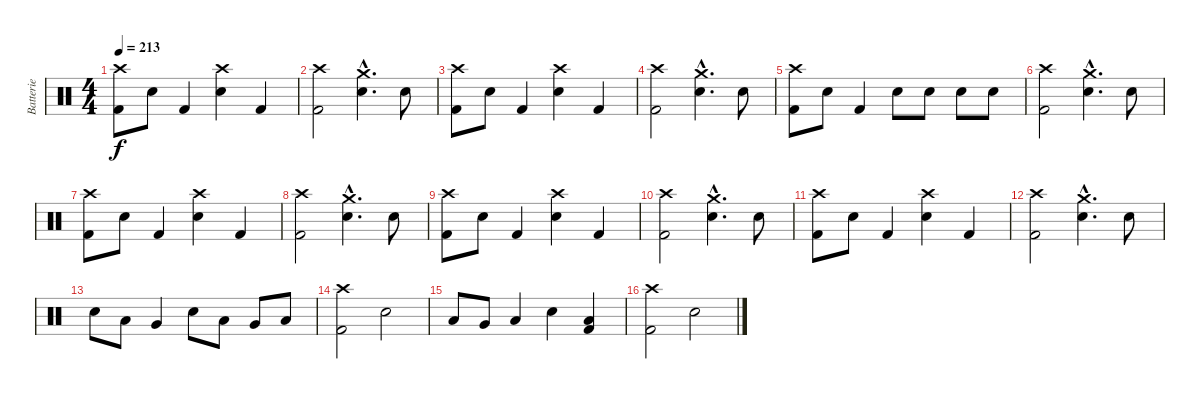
\track ("Batterie" "Batterie") {instrument percussion}
\staff {score}
\articulation defaults
\ts (4 4)
\tempo 213
\clef neutral
\ks c
("Crash high (hit)" "Kick (hit) 2").8{dy f} "Electric Snare (hit)".8 "Kick (hit) 2".4 ("Crash high (hit)" "Electric Snare (hit)").4 "Kick (hit) 2".4 |
("Crash high (hit)" "Kick (hit) 2").2 ("Crash medium (hit)"{hac} "Electric Snare (hit)"{hac}).4{d} "Electric Snare (hit)".8 |
("Crash high (hit)" "Kick (hit) 2").8 "Electric Snare (hit)".8 "Kick (hit) 2".4 ("Crash high (hit)" "Electric Snare (hit)").4 "Kick (hit) 2".4 |
("Crash high (hit)" "Kick (hit) 2").2 ("Crash medium (hit)"{hac} "Electric Snare (hit)"{hac}).4{d} "Electric Snare (hit)".8 |
("Crash high (hit)" "Kick (hit) 2").8 "Electric Snare (hit)".8 "Kick (hit) 2".4 "Electric Snare (hit)".8 "Electric Snare (hit)".8 "Electric Snare (hit)".8 "Electric Snare (hit)".8 |
("Crash high (hit)" "Kick (hit) 2").2 ("Crash medium (hit)"{hac} "Electric Snare (hit)"{hac}).4{d} "Electric Snare (hit)".8 |
("Crash high (hit)" "Kick (hit) 2").8 "Electric Snare (hit)".8 "Kick (hit) 2".4 ("Crash high (hit)" "Electric Snare (hit)").4 "Kick (hit) 2".4 |
("Crash high (hit)" "Kick (hit) 2").2 ("Crash medium (hit)"{hac} "Electric Snare (hit)"{hac}).4{d} "Electric Snare (hit)".8 |
("Crash high (hit)" "Kick (hit) 2").8 "Electric Snare (hit)".8 "Kick (hit) 2".4 ("Crash high (hit)" "Electric Snare (hit)").4 "Kick (hit) 2".4 |
("Crash high (hit)" "Kick (hit) 2").2 ("Crash medium (hit)"{hac} "Electric Snare (hit)"{hac}).4{d} "Electric Snare (hit)".8 |
("Crash high (hit)" "Kick (hit) 2").8 "Electric Snare (hit)".8 "Kick (hit) 2".4 ("Crash high (hit)" "Electric Snare (hit)").4 "Kick (hit) 2".4 |
("Crash high (hit)" "Kick (hit) 2").2 ("Crash medium (hit)"{hac} "Electric Snare (hit)"{hac}).4{d} "Electric Snare (hit)".8 |
"Electric Snare (hit)".8 "Low Tom (hit)".8 "Very Low Tom (hit)".4 "Electric Snare (hit)".8 "Low Tom (hit)".8 "Very Low Tom (hit)".8 "Low Floor Tom (hit)".8 |
("Crash high (hit)" "Kick (hit) 2").2 "Electric Snare (hit)".2 |
"Low Tom (hit)".8 "Very Low Tom (hit)".8 "Low Floor Tom (hit)".4 "Electric Snare (hit)".4 ("Kick (hit) 2" "Low Floor Tom (hit)").4 |
("Crash high (hit)" "Kick (hit) 2").2 "Electric Snare (hit)".2
